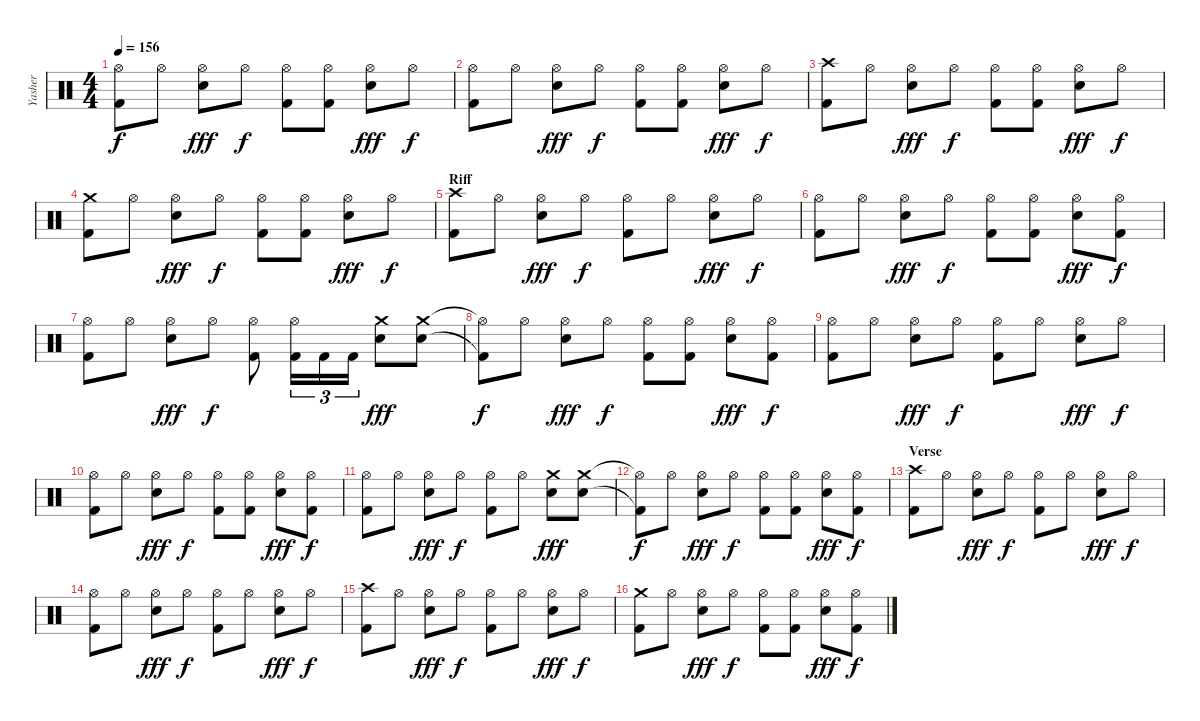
\track ("Yasher" "Yasher") {instrument percussion}
\staff {score}
\articulation defaults
\ts (4 4)
\tempo 156
\clef neutral
\ks c
("Hi-Hat (open)" "Kick (hit) 2").8{dy f} "Hi-Hat (open)".8 ("Hi-Hat (open)" "Electric Snare (hit)").8{dy fff} "Hi-Hat (open)".8{dy f} ("Hi-Hat (open)" "Kick (hit) 2").8 ("Hi-Hat (open)" "Kick (hit) 2").8 ("Hi-Hat (open)" "Electric Snare (hit)").8{dy fff} "Hi-Hat (open)".8{dy f} |
("Hi-Hat (open)" "Kick (hit) 2").8 "Hi-Hat (open)".8 ("Hi-Hat (open)" "Electric Snare (hit)").8{dy fff} "Hi-Hat (open)".8{dy f} ("Hi-Hat (open)" "Kick (hit) 2").8 ("Hi-Hat (open)" "Kick (hit) 2").8 ("Hi-Hat (open)" "Electric Snare (hit)").8{dy fff} "Hi-Hat (open)".8{dy f} |
("Crash high (hit)" "Kick (hit) 2").8 "Hi-Hat (open)".8 ("Hi-Hat (open)" "Electric Snare (hit)").8{dy fff} "Hi-Hat (open)".8{dy f} ("Hi-Hat (open)" "Kick (hit) 2").8 ("Hi-Hat (open)" "Kick (hit) 2").8 ("Hi-Hat (open)" "Electric Snare (hit)").8{dy fff} "Hi-Hat (open)".8{dy f} |
("Crash medium (hit)" "Kick (hit) 2").8 "Hi-Hat (open)".8 ("Hi-Hat (open)" "Electric Snare (hit)").8{dy fff} "Hi-Hat (open)".8{dy f} ("Hi-Hat (open)" "Kick (hit) 2").8 ("Hi-Hat (open)" "Kick (hit) 2").8 ("Hi-Hat (open)" "Electric Snare (hit)").8{dy fff} "Hi-Hat (open)".8{dy f} |
\section ("" "Riff")
("Crash high (hit)" "Kick (hit) 2").8 "Hi-Hat (open)".8 ("Hi-Hat (open)" "Electric Snare (hit)").8{dy fff} "Hi-Hat (open)".8{dy f} ("Hi-Hat (open)" "Kick (hit) 2").8 "Hi-Hat (open)".8 ("Hi-Hat (open)" "Electric Snare (hit)").8{dy fff} "Hi-Hat (open)".8{dy f} |
("Hi-Hat (open)" "Kick (hit) 2").8 "Hi-Hat (open)".8 ("Hi-Hat (open)" "Electric Snare (hit)").8{dy fff} "Hi-Hat (open)".8{dy f} ("Hi-Hat (open)" "Kick (hit) 2").8 ("Hi-Hat (open)" "Kick (hit) 2").8 ("Hi-Hat (open)" "Electric Snare (hit)").8{dy fff} ("Hi-Hat (open)" "Kick (hit) 2").8{dy f} |
("Hi-Hat (open)" "Kick (hit) 2").8 "Hi-Hat (open)".8 ("Hi-Hat (open)" "Electric Snare (hit)").8{dy fff} "Hi-Hat (open)".8{dy f} ("Hi-Hat (open)" "Kick (hit) 2").8 ("Hi-Hat (open)" "Kick (hit) 2").16{tu (3 2)} "Kick (hit) 2".16{tu (3 2)} "Kick (hit) 2".16{tu (3 2)} ("Crash medium (hit)" "Electric Snare (hit)").8{dy fff} ("Crash medium (hit)" "Electric Snare (hit)").8 |
("Hi-Hat (open)"{t} "Kick (hit) 2"{t}).8{dy f} "Hi-Hat (open)".8 ("Hi-Hat (open)" "Electric Snare (hit)").8{dy fff} "Hi-Hat (open)".8{dy f} ("Hi-Hat (open)" "Kick (hit) 2").8 ("Hi-Hat (open)" "Kick (hit) 2").8 ("Hi-Hat (open)" "Electric Snare (hit)").8{dy fff} ("Hi-Hat (open)" "Kick (hit) 2").8{dy f} |
("Hi-Hat (open)" "Kick (hit) 2").8 "Hi-Hat (open)".8 ("Hi-Hat (open)" "Electric Snare (hit)").8{dy fff} "Hi-Hat (open)".8{dy f} ("Hi-Hat (open)" "Kick (hit) 2").8 "Hi-Hat (open)".8 ("Hi-Hat (open)" "Electric Snare (hit)").8{dy fff} "Hi-Hat (open)".8{dy f} |
("Hi-Hat (open)" "Kick (hit) 2").8 "Hi-Hat (open)".8 ("Hi-Hat (open)" "Electric Snare (hit)").8{dy fff} "Hi-Hat (open)".8{dy f} ("Hi-Hat (open)" "Kick (hit) 2").8 ("Hi-Hat (open)" "Kick (hit) 2").8 ("Hi-Hat (open)" "Electric Snare (hit)").8{dy fff} ("Hi-Hat (open)" "Kick (hit) 2").8{dy f} |
("Hi-Hat (open)" "Kick (hit) 2").8 "Hi-Hat (open)".8 ("Hi-Hat (open)" "Electric Snare (hit)").8{dy fff} "Hi-Hat (open)".8{dy f} ("Hi-Hat (open)" "Kick (hit) 2").8 "Hi-Hat (open)".8 ("Crash medium (hit)" "Electric Snare (hit)").8{dy fff} ("Crash medium (hit)" "Electric Snare (hit)").8 |
("Hi-Hat (open)"{t} "Kick (hit) 2"{t}).8{dy f} "Hi-Hat (open)".8 ("Hi-Hat (open)" "Electric Snare (hit)").8{dy fff} "Hi-Hat (open)".8{dy f} ("Hi-Hat (open)" "Kick (hit) 2").8 ("Hi-Hat (open)" "Kick (hit) 2").8 ("Hi-Hat (open)" "Electric Snare (hit)").8{dy fff} ("Hi-Hat (open)" "Kick (hit) 2").8{dy f} |
\section ("" "Verse")
("Crash high (hit)" "Kick (hit) 2").8 "Hi-Hat (open)".8 ("Hi-Hat (open)" "Electric Snare (hit)").8{dy fff} "Hi-Hat (open)".8{dy f} ("Hi-Hat (open)" "Kick (hit) 2").8 "Hi-Hat (open)".8 ("Hi-Hat (open)" "Electric Snare (hit)").8{dy fff} "Hi-Hat (open)".8{dy f} |
("Hi-Hat (open)" "Kick (hit) 2").8 "Hi-Hat (open)".8 ("Hi-Hat (open)" "Electric Snare (hit)").8{dy fff} "Hi-Hat (open)".8{dy f} ("Hi-Hat (open)" "Kick (hit) 2").8 "Hi-Hat (open)".8 ("Hi-Hat (open)" "Electric Snare (hit)").8{dy fff} "Hi-Hat (open)".8{dy f} |
("Crash high (hit)" "Kick (hit) 2").8 "Hi-Hat (open)".8 ("Hi-Hat (open)" "Electric Snare (hit)").8{dy fff} "Hi-Hat (open)".8{dy f} ("Hi-Hat (open)" "Kick (hit) 2").8 "Hi-Hat (open)".8 ("Hi-Hat (open)" "Electric Snare (hit)").8{dy fff} "Hi-Hat (open)".8{dy f} |
("Crash medium (hit)" "Kick (hit) 2").8 "Hi-Hat (open)".8 ("Hi-Hat (open)" "Electric Snare (hit)").8{dy fff} "Hi-Hat (open)".8{dy f} ("Hi-Hat (open)" "Kick (hit) 2").8 ("Hi-Hat (open)" "Kick (hit) 2").8 ("Hi-Hat (open)" "Electric Snare (hit)").8{dy fff} ("Hi-Hat (open)" "Kick (hit) 2").8{dy f}
